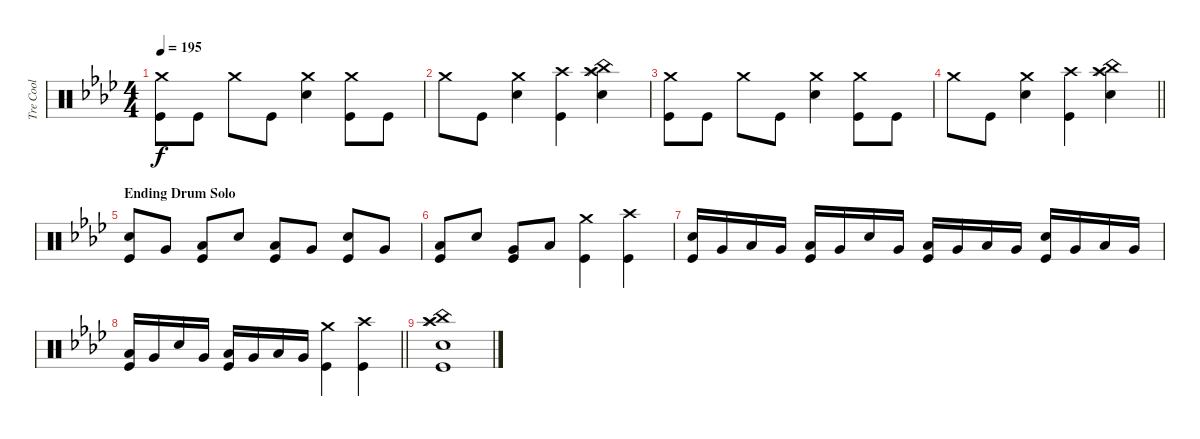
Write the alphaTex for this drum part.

\track ("Tre Cool" "Tre Cool") {instrument percussion}
\staff {score}
\articulation defaults
\ts (4 4)
\tempo 195
\clef neutral
\ks ab
("Crash medium (hit)" "Kick (hit)").8{dy f} "Kick (hit)".8 "Crash medium (hit)".8 "Kick (hit)".8 ("Crash medium (hit)" "Electric Snare (hit)").4 ("Crash medium (hit)" "Kick (hit)").8 "Kick (hit)".8 |
"Crash medium (hit)".8 "Kick (hit)".8 ("Crash medium (hit)" "Electric Snare (hit)").4 ("Crash high (hit)" "Kick (hit)").4 ("China (hit)" "Splash (hit)" "Electric Snare (hit)" "Crash high (hit)").4 |
("Crash medium (hit)" "Kick (hit)").8 "Kick (hit)".8 "Crash medium (hit)".8 "Kick (hit)".8 ("Crash medium (hit)" "Electric Snare (hit)").4 ("Crash medium (hit)" "Kick (hit)").8 "Kick (hit)".8 |
\barLineRight lightlight "Crash medium (hit)".8 "Kick (hit)".8
("Crash medium (hit)" "Electric Snare (hit)").4 ("Crash high (hit)" "Kick (hit)").4 ("China (hit)" "Splash (hit)" "Electric Snare (hit)" "Crash high (hit)").4 |
\section ("" "Ending Drum Solo")
("Electric Snare (hit)" "Kick (hit)").8 "Very Low Tom (hit)".8 ("Low Floor Tom (hit)" "Kick (hit)").8 "Electric Snare (hit)".8 ("Low Floor Tom (hit)" "Kick (hit)").8 "Very Low Tom (hit)".8 ("Electric Snare (hit)" "Kick (hit)").8 "Very Low Tom (hit)".8 |
("Low Floor Tom (hit)" "Kick (hit)").8 "Electric Snare (hit)".8 ("Very Low Tom (hit)" "Kick (hit)").8 "Low Floor Tom (hit)".8 ("Crash medium (hit)" "Kick (hit)").4 ("Crash high (hit)" "Kick (hit)").4 |
("Electric Snare (hit)" "Kick (hit)").16 "Very Low Tom (hit)".16 "Low Floor Tom (hit)".16 "Very Low Tom (hit)".16 ("Low Floor Tom (hit)" "Kick (hit)").16 "Very Low Tom (hit)".16 "Electric Snare (hit)".16 "Very Low Tom (hit)".16 ("Low Floor Tom (hit)" "Kick (hit)").16 "Very Low Tom (hit)".16 "Low Floor Tom (hit)".16 "Very Low Tom (hit)".16 ("Electric Snare (hit)" "Kick (hit)").16 "Very Low Tom (hit)".16 "Low Floor Tom (hit)".16 "Very Low Tom (hit)".16 |
\barLineRight lightlight
("Low Floor Tom (hit)" "Kick (hit)").16 "Very Low Tom (hit)".16 "Electric Snare (hit)".16 "Very Low Tom (hit)".16 ("Low Floor Tom (hit)" "Kick (hit)").16 "Very Low Tom (hit)".16 "Low Floor Tom (hit)".16 "Very Low Tom (hit)".16 ("Crash medium (hit)" "Kick (hit)").4 ("Crash high (hit)" "Kick (hit)").4 |
("China (hit)" "Splash (hit)" "Crash high (hit)" "Electric Snare (hit)" "Kick (hit)").1
